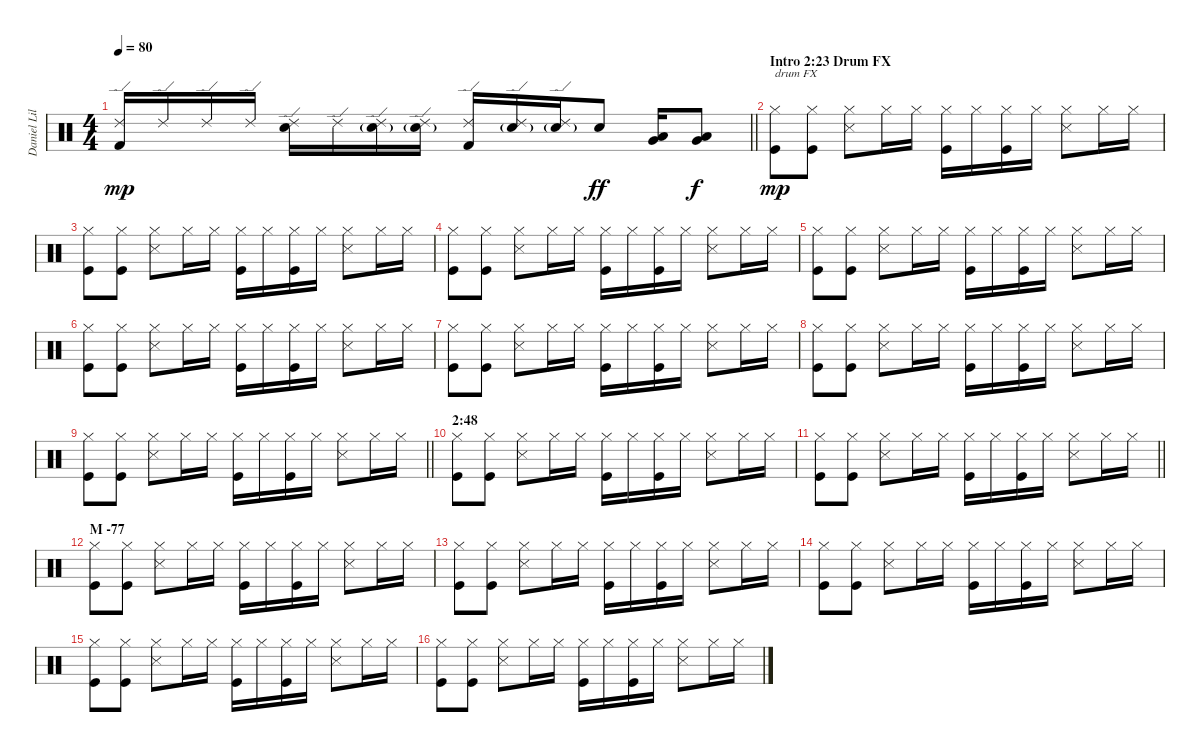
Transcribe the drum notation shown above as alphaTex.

\track ("Daniel Liljekvist (Drums)" "Daniel Lil") {instrument percussion}
\staff {score}
\articulation defaults
\ts (4 4)
\tempo 80
\clef neutral
\barLineRight lightlight
\ks c
("Kick (hit) 2" "Ride (edge) 2").16{dy mp} "Ride (edge) 2".16 "Ride (edge) 2".16 "Ride (edge) 2".16 ("Electric Snare (hit)" "Ride (edge) 2").16 "Ride (edge) 2".16 ("Electric Snare (hit)"{g} "Ride (edge) 2").16 ("Electric Snare (hit)"{g} "Ride (edge) 2").16 ("Kick (hit) 2" "Ride (edge) 2").16 ("Electric Snare (hit)"{g} "Ride (edge) 2").16 ("Electric Snare (hit)"{g} "Ride (edge) 2").16 "Electric Snare (hit)".8{dy ff} ("Low Tom (hit)" "Very Low Tom (hit)").16 ("Low Tom (hit)" "Very Low Tom (hit)").8{dy f} |
\section ("" "Intro 2:23 Drum FX")
("Kick (hit)" "Hi-Hat (closed)").8{txt "drum FX" dy mp} ("Kick (hit)" "Hi-Hat (closed)").8 ("Snare (side stick) 3" "Hi-Hat (closed)").8 "Hi-Hat (closed)".16 "Hi-Hat (closed)".16 ("Kick (hit)" "Hi-Hat (closed)").16 "Hi-Hat (closed)".16 ("Kick (hit)" "Hi-Hat (closed)").16 "Hi-Hat (closed)".16 ("Snare (side stick) 3" "Hi-Hat (closed)").8 "Hi-Hat (closed)".16 "Hi-Hat (closed)".16 |
("Kick (hit)" "Hi-Hat (closed)").8 ("Kick (hit)" "Hi-Hat (closed)").8 ("Snare (side stick) 3" "Hi-Hat (closed)").8 "Hi-Hat (closed)".16 "Hi-Hat (closed)".16 ("Kick (hit)" "Hi-Hat (closed)").16 "Hi-Hat (closed)".16 ("Kick (hit)" "Hi-Hat (closed)").16 "Hi-Hat (closed)".16 ("Snare (side stick) 3" "Hi-Hat (closed)").8 "Hi-Hat (closed)".16 "Hi-Hat (closed)".16 |
("Kick (hit)" "Hi-Hat (closed)").8 ("Kick (hit)" "Hi-Hat (closed)").8 ("Snare (side stick) 3" "Hi-Hat (closed)").8 "Hi-Hat (closed)".16 "Hi-Hat (closed)".16 ("Kick (hit)" "Hi-Hat (closed)").16 "Hi-Hat (closed)".16 ("Kick (hit)" "Hi-Hat (closed)").16 "Hi-Hat (closed)".16 ("Snare (side stick) 3" "Hi-Hat (closed)").8 "Hi-Hat (closed)".16 "Hi-Hat (closed)".16 |
("Kick (hit)" "Hi-Hat (closed)").8 ("Kick (hit)" "Hi-Hat (closed)").8 ("Snare (side stick) 3" "Hi-Hat (closed)").8 "Hi-Hat (closed)".16 "Hi-Hat (closed)".16 ("Kick (hit)" "Hi-Hat (closed)").16 "Hi-Hat (closed)".16 ("Kick (hit)" "Hi-Hat (closed)").16 "Hi-Hat (closed)".16 ("Snare (side stick) 3" "Hi-Hat (closed)").8 "Hi-Hat (closed)".16 "Hi-Hat (closed)".16 |
("Kick (hit)" "Hi-Hat (closed)").8 ("Kick (hit)" "Hi-Hat (closed)").8 ("Snare (side stick) 3" "Hi-Hat (closed)").8 "Hi-Hat (closed)".16 "Hi-Hat (closed)".16 ("Kick (hit)" "Hi-Hat (closed)").16 "Hi-Hat (closed)".16 ("Kick (hit)" "Hi-Hat (closed)").16 "Hi-Hat (closed)".16 ("Snare (side stick) 3" "Hi-Hat (closed)").8 "Hi-Hat (closed)".16 "Hi-Hat (closed)".16 |
("Kick (hit)" "Hi-Hat (closed)").8 ("Kick (hit)" "Hi-Hat (closed)").8 ("Snare (side stick) 3" "Hi-Hat (closed)").8 "Hi-Hat (closed)".16 "Hi-Hat (closed)".16 ("Kick (hit)" "Hi-Hat (closed)").16 "Hi-Hat (closed)".16 ("Kick (hit)" "Hi-Hat (closed)").16 "Hi-Hat (closed)".16 ("Snare (side stick) 3" "Hi-Hat (closed)").8 "Hi-Hat (closed)".16 "Hi-Hat (closed)".16 |
("Kick (hit)" "Hi-Hat (closed)").8 ("Kick (hit)" "Hi-Hat (closed)").8 ("Snare (side stick) 3" "Hi-Hat (closed)").8 "Hi-Hat (closed)".16 "Hi-Hat (closed)".16 ("Kick (hit)" "Hi-Hat (closed)").16 "Hi-Hat (closed)".16 ("Kick (hit)" "Hi-Hat (closed)").16 "Hi-Hat (closed)".16 ("Snare (side stick) 3" "Hi-Hat (closed)").8 "Hi-Hat (closed)".16 "Hi-Hat (closed)".16 |
\barLineRight lightlight
("Kick (hit)" "Hi-Hat (closed)").8 ("Kick (hit)" "Hi-Hat (closed)").8 ("Snare (side stick) 3" "Hi-Hat (closed)").8 "Hi-Hat (closed)".16 "Hi-Hat (closed)".16 ("Kick (hit)" "Hi-Hat (closed)").16 "Hi-Hat (closed)".16 ("Kick (hit)" "Hi-Hat (closed)").16 "Hi-Hat (closed)".16 ("Snare (side stick) 3" "Hi-Hat (closed)").8 "Hi-Hat (closed)".16 "Hi-Hat (closed)".16 |
\section ("" "2:48")
("Kick (hit)" "Hi-Hat (closed)").8 ("Kick (hit)" "Hi-Hat (closed)").8 ("Snare (side stick) 3" "Hi-Hat (closed)").8 "Hi-Hat (closed)".16 "Hi-Hat (closed)".16 ("Kick (hit)" "Hi-Hat (closed)").16 "Hi-Hat (closed)".16 ("Kick (hit)" "Hi-Hat (closed)").16 "Hi-Hat (closed)".16 ("Snare (side stick) 3" "Hi-Hat (closed)").8 "Hi-Hat (closed)".16 "Hi-Hat (closed)".16 |
\barLineRight lightlight
("Kick (hit)" "Hi-Hat (closed)").8 ("Kick (hit)" "Hi-Hat (closed)").8 ("Snare (side stick) 3" "Hi-Hat (closed)").8 "Hi-Hat (closed)".16 "Hi-Hat (closed)".16 ("Kick (hit)" "Hi-Hat (closed)").16 "Hi-Hat (closed)".16 ("Kick (hit)" "Hi-Hat (closed)").16 "Hi-Hat (closed)".16 ("Snare (side stick) 3" "Hi-Hat (closed)").8 "Hi-Hat (closed)".16 "Hi-Hat (closed)".16 |
\section ("" "M -77")
("Kick (hit)" "Hi-Hat (closed)").8 ("Kick (hit)" "Hi-Hat (closed)").8 ("Snare (side stick) 3" "Hi-Hat (closed)").8 "Hi-Hat (closed)".16 "Hi-Hat (closed)".16 ("Kick (hit)" "Hi-Hat (closed)").16 "Hi-Hat (closed)".16 ("Kick (hit)" "Hi-Hat (closed)").16 "Hi-Hat (closed)".16 ("Snare (side stick) 3" "Hi-Hat (closed)").8 "Hi-Hat (closed)".16 "Hi-Hat (closed)".16 |
("Kick (hit)" "Hi-Hat (closed)").8 ("Kick (hit)" "Hi-Hat (closed)").8 ("Snare (side stick) 3" "Hi-Hat (closed)").8 "Hi-Hat (closed)".16 "Hi-Hat (closed)".16 ("Kick (hit)" "Hi-Hat (closed)").16 "Hi-Hat (closed)".16 ("Kick (hit)" "Hi-Hat (closed)").16 "Hi-Hat (closed)".16 ("Snare (side stick) 3" "Hi-Hat (closed)").8 "Hi-Hat (closed)".16 "Hi-Hat (closed)".16 |
("Kick (hit)" "Hi-Hat (closed)").8 ("Kick (hit)" "Hi-Hat (closed)").8 ("Snare (side stick) 3" "Hi-Hat (closed)").8 "Hi-Hat (closed)".16 "Hi-Hat (closed)".16 ("Kick (hit)" "Hi-Hat (closed)").16 "Hi-Hat (closed)".16 ("Kick (hit)" "Hi-Hat (closed)").16 "Hi-Hat (closed)".16 ("Snare (side stick) 3" "Hi-Hat (closed)").8 "Hi-Hat (closed)".16 "Hi-Hat (closed)".16 |
("Kick (hit)" "Hi-Hat (closed)").8 ("Kick (hit)" "Hi-Hat (closed)").8 ("Snare (side stick) 3" "Hi-Hat (closed)").8 "Hi-Hat (closed)".16 "Hi-Hat (closed)".16 ("Kick (hit)" "Hi-Hat (closed)").16 "Hi-Hat (closed)".16 ("Kick (hit)" "Hi-Hat (closed)").16 "Hi-Hat (closed)".16 ("Snare (side stick) 3" "Hi-Hat (closed)").8 "Hi-Hat (closed)".16 "Hi-Hat (closed)".16 |
("Kick (hit)" "Hi-Hat (closed)").8 ("Kick (hit)" "Hi-Hat (closed)").8 ("Snare (side stick) 3" "Hi-Hat (closed)").8 "Hi-Hat (closed)".16 "Hi-Hat (closed)".16 ("Kick (hit)" "Hi-Hat (closed)").16 "Hi-Hat (closed)".16 ("Kick (hit)" "Hi-Hat (closed)").16 "Hi-Hat (closed)".16 ("Snare (side stick) 3" "Hi-Hat (closed)").8 "Hi-Hat (closed)".16 "Hi-Hat (closed)".16
